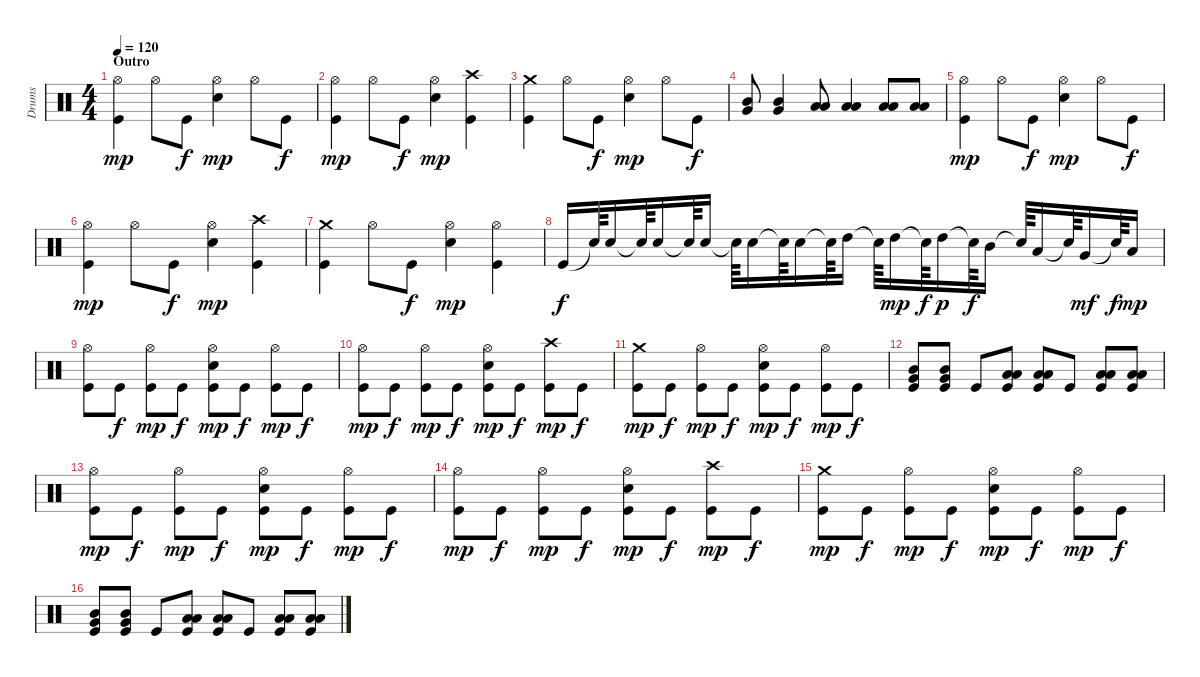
\track ("Drums" "Drums") {instrument percussion}
\staff {score}
\articulation defaults
\ts (4 4)
\section ("" "Outro")
\tempo 120
\clef neutral
\ks c
("Hi-Hat (open)" "Kick (hit)").4{dy mp} "Hi-Hat (open)".8 "Kick (hit)".8{dy f} ("Hi-Hat (open)" "Electric Snare (hit)").4{dy mp} "Hi-Hat (open)".8 "Kick (hit)".8{dy f} |
("Hi-Hat (open)" "Kick (hit)").4{dy mp} "Hi-Hat (open)".8 "Kick (hit)".8{dy f} ("Hi-Hat (open)" "Electric Snare (hit)").4{dy mp} ("Crash high (hit)" "Kick (hit)").4 |
("Crash medium (hit)" "Kick (hit)").4 "Hi-Hat (open)".8 "Kick (hit)".8{dy f} ("Hi-Hat (open)" "Electric Snare (hit)").4{dy mp} "Hi-Hat (open)".8 "Kick (hit)".8{dy f} |
("Mid Tom (hit)" "Very Low Tom (hit)").8 ("Mid Tom (hit)" "Very Low Tom (hit)").4 ("Low Tom (hit)" "Low Floor Tom (hit)").8 ("Low Tom (hit)" "Low Floor Tom (hit)").4 ("Low Tom (hit)" "Low Floor Tom (hit)").8 ("Low Tom (hit)" "Low Floor Tom (hit)").8 |
("Hi-Hat (open)" "Kick (hit)").4{dy mp} "Hi-Hat (open)".8 "Kick (hit)".8{dy f} ("Hi-Hat (open)" "Electric Snare (hit)").4{dy mp} "Hi-Hat (open)".8 "Kick (hit)".8{dy f} |
("Hi-Hat (open)" "Kick (hit)").4{dy mp} "Hi-Hat (open)".8 "Kick (hit)".8{dy f} ("Hi-Hat (open)" "Electric Snare (hit)").4{dy mp} ("Crash high (hit)" "Kick (hit)").4 |
("Crash medium (hit)" "Kick (hit)").4 "Hi-Hat (open)".8 "Kick (hit)".8{dy f} ("Hi-Hat (open)" "Electric Snare (hit)").4{dy mp} ("Hi-Hat (open)" "Kick (hit)").4 |
"Kick (hit)".16{dy f} "Snare (hit)"{t}.64 "Electric Snare (hit)".16 "Snare (hit)"{t}.64 "Electric Snare (hit)".16 "Snare (hit)"{t}.64 "Electric Snare (hit)".16 "Snare (hit)"{t}.64 "Electric Snare (hit)".16 "Electric Snare (hit)"{t}.64 "Electric Snare (hit)".16 "Snare (hit)"{t}.64 "High Tom (hit)".16 "Snare (hit)"{t}.64 "High Tom (hit)".16{dy mp} "Snare (hit)"{t}.64{dy f} "High Tom (hit)".16{dy p} "Snare (hit)"{t}.64{dy f} "Mid Tom (hit)".16 "Snare (hit)"{t}.64 "Low Tom (hit)".16 "Snare (hit)"{t}.64 "Very Low Tom (hit)".16{dy mf} "Snare (hit)"{t}.64{dy f} "Low Floor Tom (hit)".16{dy mp} |
("Hi-Hat (open)" "Kick (hit)").8 "Kick (hit)".8{dy f} ("Hi-Hat (open)" "Kick (hit)").8{dy mp} "Kick (hit)".8{dy f} ("Hi-Hat (open)" "Electric Snare (hit)" "Kick (hit)").8{dy mp} "Kick (hit)".8{dy f} ("Hi-Hat (open)" "Kick (hit)").8{dy mp} "Kick (hit)".8{dy f} |
("Hi-Hat (open)" "Kick (hit)").8{dy mp} "Kick (hit)".8{dy f} ("Hi-Hat (open)" "Kick (hit)").8{dy mp} "Kick (hit)".8{dy f} ("Hi-Hat (open)" "Electric Snare (hit)" "Kick (hit)").8{dy mp} "Kick (hit)".8{dy f} ("Crash high (hit)" "Kick (hit)").8{dy mp} "Kick (hit)".8{dy f} |
("Crash medium (hit)" "Kick (hit)").8{dy mp} "Kick (hit)".8{dy f} ("Hi-Hat (open)" "Kick (hit)").8{dy mp} "Kick (hit)".8{dy f} ("Hi-Hat (open)" "Electric Snare (hit)" "Kick (hit)").8{dy mp} "Kick (hit)".8{dy f} ("Hi-Hat (open)" "Kick (hit)").8{dy mp} "Kick (hit)".8{dy f} |
("Mid Tom (hit)" "Very Low Tom (hit)" "Kick (hit)").8 ("Mid Tom (hit)" "Very Low Tom (hit)" "Kick (hit)").8 "Kick (hit)".8 ("Low Tom (hit)" "Low Floor Tom (hit)" "Kick (hit)").8 ("Low Tom (hit)" "Low Floor Tom (hit)" "Kick (hit)").8 "Kick (hit)".8 ("Low Tom (hit)" "Low Floor Tom (hit)" "Kick (hit)").8 ("Low Tom (hit)" "Low Floor Tom (hit)" "Kick (hit)").8 |
("Hi-Hat (open)" "Kick (hit)").8{dy mp} "Kick (hit)".8{dy f} ("Hi-Hat (open)" "Kick (hit)").8{dy mp} "Kick (hit)".8{dy f} ("Hi-Hat (open)" "Electric Snare (hit)" "Kick (hit)").8{dy mp} "Kick (hit)".8{dy f} ("Hi-Hat (open)" "Kick (hit)").8{dy mp} "Kick (hit)".8{dy f} |
("Hi-Hat (open)" "Kick (hit)").8{dy mp} "Kick (hit)".8{dy f} ("Hi-Hat (open)" "Kick (hit)").8{dy mp} "Kick (hit)".8{dy f} ("Hi-Hat (open)" "Electric Snare (hit)" "Kick (hit)").8{dy mp} "Kick (hit)".8{dy f} ("Crash high (hit)" "Kick (hit)").8{dy mp} "Kick (hit)".8{dy f} |
("Crash medium (hit)" "Kick (hit)").8{dy mp} "Kick (hit)".8{dy f} ("Hi-Hat (open)" "Kick (hit)").8{dy mp} "Kick (hit)".8{dy f} ("Hi-Hat (open)" "Electric Snare (hit)" "Kick (hit)").8{dy mp} "Kick (hit)".8{dy f} ("Hi-Hat (open)" "Kick (hit)").8{dy mp} "Kick (hit)".8{dy f} |
("Mid Tom (hit)" "Very Low Tom (hit)" "Kick (hit)").8 ("Mid Tom (hit)" "Very Low Tom (hit)" "Kick (hit)").8 "Kick (hit)".8 ("Low Tom (hit)" "Low Floor Tom (hit)" "Kick (hit)").8 ("Low Tom (hit)" "Low Floor Tom (hit)" "Kick (hit)").8 "Kick (hit)".8 ("Low Tom (hit)" "Low Floor Tom (hit)" "Kick (hit)").8 ("Low Tom (hit)" "Low Floor Tom (hit)" "Kick (hit)").8
